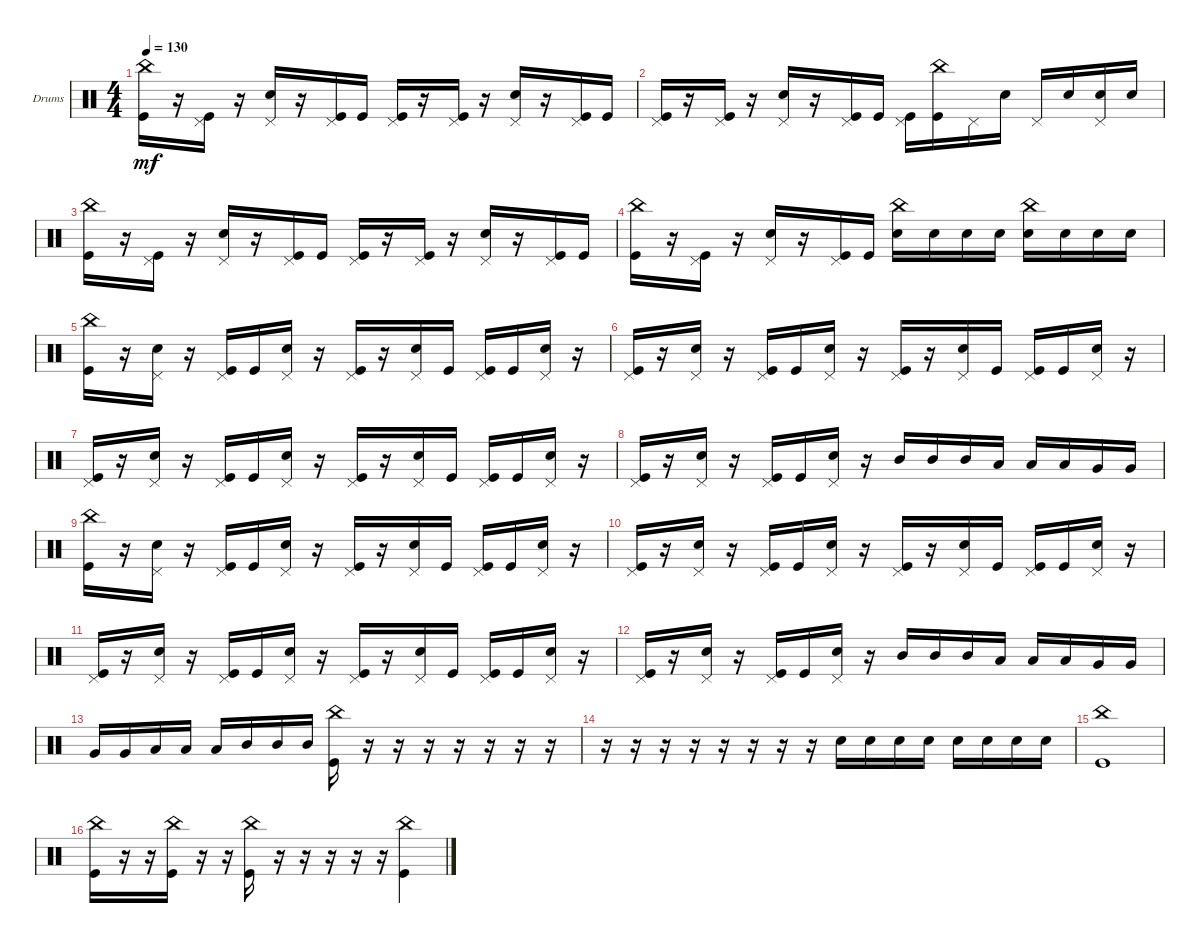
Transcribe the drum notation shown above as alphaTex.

\defaultSystemsLayout 4
\bracketExtendMode groupsimilarinstruments
\firstSystemTrackNameOrientation horizontal
\otherSystemsTrackNameOrientation horizontal
\track ("Drumkit" "Drums") {instrument percussion}
\staff {score}
\articulation defaults
\ts (4 4)
\tempo 130
\clef neutral
\ks c
("Kick (hit)" "China (hit)").16{dy mf} r.16 ("Kick (hit)" "Pedal Hi-Hat (hit)").16 r.16 ("Snare (hit) 2" "Pedal Hi-Hat (hit)").16 r.16 ("Kick (hit)" "Pedal Hi-Hat (hit)").16 "Kick (hit)".16 ("Kick (hit)" "Pedal Hi-Hat (hit)").16 r.16 ("Kick (hit)" "Pedal Hi-Hat (hit)").16 r.16 ("Snare (hit) 2" "Pedal Hi-Hat (hit)").16 r.16 ("Kick (hit)" "Pedal Hi-Hat (hit)").16 "Kick (hit)".16 |
("Kick (hit)" "Pedal Hi-Hat (hit)").16 r.16 ("Kick (hit)" "Pedal Hi-Hat (hit)").16 r.16 ("Snare (hit) 2" "Pedal Hi-Hat (hit)").16 r.16 ("Kick (hit)" "Pedal Hi-Hat (hit)").16 "Kick (hit)".16 ("Kick (hit)" "Pedal Hi-Hat (hit)").16 ("Kick (hit)" "China (hit)").16 "Pedal Hi-Hat (hit)".16 "Snare (hit) 2".16 "Pedal Hi-Hat (hit)".16 "Snare (hit) 2".16 ("Snare (hit) 2" "Pedal Hi-Hat (hit)").16 "Snare (hit) 2".16 |
("Kick (hit)" "China (hit)").16 r.16 ("Kick (hit)" "Pedal Hi-Hat (hit)").16 r.16 ("Snare (hit) 2" "Pedal Hi-Hat (hit)").16 r.16 ("Kick (hit)" "Pedal Hi-Hat (hit)").16 "Kick (hit)".16 ("Kick (hit)" "Pedal Hi-Hat (hit)").16 r.16 ("Kick (hit)" "Pedal Hi-Hat (hit)").16 r.16 ("Snare (hit) 2" "Pedal Hi-Hat (hit)").16 r.16 ("Kick (hit)" "Pedal Hi-Hat (hit)").16 "Kick (hit)".16 |
("Kick (hit)" "China (hit)").16 r.16 ("Kick (hit)" "Pedal Hi-Hat (hit)").16 r.16 ("Snare (hit) 2" "Pedal Hi-Hat (hit)").16 r.16 ("Kick (hit)" "Pedal Hi-Hat (hit)").16 "Kick (hit)".16 ("China (hit)" "Snare (hit) 2").16 "Snare (hit) 2".16 "Snare (hit) 2".16 "Snare (hit) 2".16 ("China (hit)" "Snare (hit) 2").16 "Snare (hit) 2".16 "Snare (hit) 2".16 "Snare (hit) 2".16 |
("Kick (hit)" "China (hit)").16 r.16 ("Snare (hit) 2" "Pedal Hi-Hat (hit)").16 r.16 ("Kick (hit)" "Pedal Hi-Hat (hit)").16 "Kick (hit)".16 ("Snare (hit) 2" "Pedal Hi-Hat (hit)").16 r.16 ("Kick (hit)" "Pedal Hi-Hat (hit)").16 r.16 ("Snare (hit) 2" "Pedal Hi-Hat (hit)").16 "Kick (hit)".16 ("Kick (hit)" "Pedal Hi-Hat (hit)").16 "Kick (hit)".16 ("Snare (hit) 2" "Pedal Hi-Hat (hit)").16 r.16 |
("Kick (hit)" "Pedal Hi-Hat (hit)").16 r.16 ("Snare (hit) 2" "Pedal Hi-Hat (hit)").16 r.16 ("Kick (hit)" "Pedal Hi-Hat (hit)").16 "Kick (hit)".16 ("Snare (hit) 2" "Pedal Hi-Hat (hit)").16 r.16 ("Kick (hit)" "Pedal Hi-Hat (hit)").16 r.16 ("Snare (hit) 2" "Pedal Hi-Hat (hit)").16 "Kick (hit)".16 ("Kick (hit)" "Pedal Hi-Hat (hit)").16 "Kick (hit)".16 ("Snare (hit) 2" "Pedal Hi-Hat (hit)").16 r.16 |
("Kick (hit)" "Pedal Hi-Hat (hit)").16 r.16 ("Snare (hit) 2" "Pedal Hi-Hat (hit)").16 r.16 ("Kick (hit)" "Pedal Hi-Hat (hit)").16 "Kick (hit)".16 ("Snare (hit) 2" "Pedal Hi-Hat (hit)").16 r.16 ("Kick (hit)" "Pedal Hi-Hat (hit)").16 r.16 ("Snare (hit) 2" "Pedal Hi-Hat (hit)").16 "Kick (hit)".16 ("Kick (hit)" "Pedal Hi-Hat (hit)").16 "Kick (hit)".16 ("Snare (hit) 2" "Pedal Hi-Hat (hit)").16 r.16 |
("Kick (hit)" "Pedal Hi-Hat (hit)").16 r.16 ("Snare (hit) 2" "Pedal Hi-Hat (hit)").16 r.16 ("Kick (hit)" "Pedal Hi-Hat (hit)").16 "Kick (hit)".16 ("Snare (hit) 2" "Pedal Hi-Hat (hit)").16 r.16 "Mid Tom (hit)".16 "Mid Tom (hit)".16 "Mid Tom (hit)".16 "Low Tom (hit)".16 "Low Tom (hit)".16 "Low Tom (hit)".16 "Very Low Tom (hit)".16 "Very Low Tom (hit)".16 |
("Kick (hit)" "China (hit)").16 r.16 ("Snare (hit) 2" "Pedal Hi-Hat (hit)").16 r.16 ("Kick (hit)" "Pedal Hi-Hat (hit)").16 "Kick (hit)".16 ("Snare (hit) 2" "Pedal Hi-Hat (hit)").16 r.16 ("Kick (hit)" "Pedal Hi-Hat (hit)").16 r.16 ("Snare (hit) 2" "Pedal Hi-Hat (hit)").16 "Kick (hit)".16 ("Kick (hit)" "Pedal Hi-Hat (hit)").16 "Kick (hit)".16 ("Snare (hit) 2" "Pedal Hi-Hat (hit)").16 r.16 |
("Kick (hit)" "Pedal Hi-Hat (hit)").16 r.16 ("Snare (hit) 2" "Pedal Hi-Hat (hit)").16 r.16 ("Kick (hit)" "Pedal Hi-Hat (hit)").16 "Kick (hit)".16 ("Snare (hit) 2" "Pedal Hi-Hat (hit)").16 r.16 ("Kick (hit)" "Pedal Hi-Hat (hit)").16 r.16 ("Snare (hit) 2" "Pedal Hi-Hat (hit)").16 "Kick (hit)".16 ("Kick (hit)" "Pedal Hi-Hat (hit)").16 "Kick (hit)".16 ("Snare (hit) 2" "Pedal Hi-Hat (hit)").16 r.16 |
("Kick (hit)" "Pedal Hi-Hat (hit)").16 r.16 ("Snare (hit) 2" "Pedal Hi-Hat (hit)").16 r.16 ("Kick (hit)" "Pedal Hi-Hat (hit)").16 "Kick (hit)".16 ("Snare (hit) 2" "Pedal Hi-Hat (hit)").16 r.16 ("Kick (hit)" "Pedal Hi-Hat (hit)").16 r.16 ("Snare (hit) 2" "Pedal Hi-Hat (hit)").16 "Kick (hit)".16 ("Kick (hit)" "Pedal Hi-Hat (hit)").16 "Kick (hit)".16 ("Snare (hit) 2" "Pedal Hi-Hat (hit)").16 r.16 |
("Kick (hit)" "Pedal Hi-Hat (hit)").16 r.16 ("Snare (hit) 2" "Pedal Hi-Hat (hit)").16 r.16 ("Kick (hit)" "Pedal Hi-Hat (hit)").16 "Kick (hit)".16 ("Snare (hit) 2" "Pedal Hi-Hat (hit)").16 r.16 "Mid Tom (hit)".16 "Mid Tom (hit)".16 "Mid Tom (hit)".16 "Low Tom (hit)".16 "Low Tom (hit)".16 "Low Tom (hit)".16 "Very Low Tom (hit)".16 "Very Low Tom (hit)".16 |
"Very Low Tom (hit)".16 "Very Low Tom (hit)".16 "Low Tom (hit)".16 "Low Tom (hit)".16 "Low Tom (hit)".16 "Mid Tom (hit)".16 "Mid Tom (hit)".16 "Mid Tom (hit)".16 ("Kick (hit)" "China (hit)").16 r.16 r.16 r.16 r.16 r.16 r.16 r.16 |
r.16 r.16 r.16 r.16 r.16 r.16 r.16 r.16 "Snare (hit) 2".16 "Snare (hit) 2".16 "Snare (hit) 2".16 "Snare (hit) 2".16 "Snare (hit) 2".16 "Snare (hit) 2".16 "Snare (hit) 2".16 "Snare (hit) 2".16 |
("Kick (hit)" "China (hit)").1 |
("Kick (hit)" "China (hit)").16 r.16 r.16 ("Kick (hit)" "China (hit)").16 r.16 r.16 ("Kick (hit)" "China (hit)").16 r.16 r.16 r.16 r.16 r.16 ("Kick (hit)" "China (hit)").4
